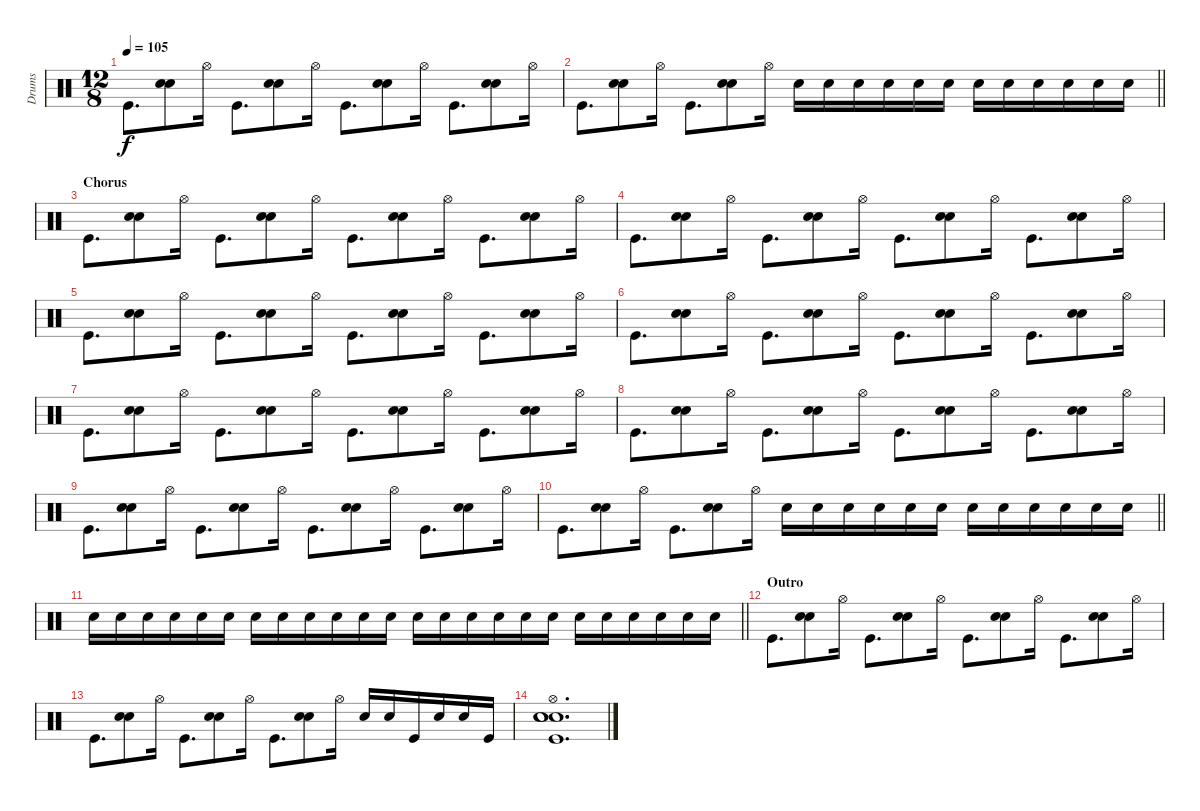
\track ("Drums" "Drums") {instrument percussion}
\staff {score}
\articulation defaults
\ts (12 8)
\tempo 105
\clef neutral
\ks c "Kick (hit)".8{d dy f}
("Hand Clap (hit)" "Electric Snare (hit)").8 "Hi-Hat (open)".16 "Kick (hit)".8{d} ("Hand Clap (hit)" "Electric Snare (hit)").8 "Hi-Hat (open)".16 "Kick (hit)".8{d} ("Hand Clap (hit)" "Electric Snare (hit)").8 "Hi-Hat (open)".16 "Kick (hit)".8{d} ("Hand Clap (hit)" "Electric Snare (hit)").8 "Hi-Hat (open)".16 |
\barLineRight lightlight "Kick (hit)".8{d}
("Hand Clap (hit)" "Electric Snare (hit)").8 "Hi-Hat (open)".16 "Kick (hit)".8{d} ("Hand Clap (hit)" "Electric Snare (hit)").8 "Hi-Hat (open)".16 "Electric Snare (hit)".16 "Electric Snare (hit)".16 "Electric Snare (hit)".16 "Electric Snare (hit)".16 "Electric Snare (hit)".16 "Electric Snare (hit)".16 "Electric Snare (hit)".16 "Electric Snare (hit)".16 "Electric Snare (hit)".16 "Electric Snare (hit)".16 "Electric Snare (hit)".16 "Electric Snare (hit)".16 |
\section ("" "Chorus")
"Kick (hit)".8{d} ("Hand Clap (hit)" "Electric Snare (hit)").8 "Hi-Hat (open)".16 "Kick (hit)".8{d} ("Hand Clap (hit)" "Electric Snare (hit)").8 "Hi-Hat (open)".16 "Kick (hit)".8{d} ("Hand Clap (hit)" "Electric Snare (hit)").8 "Hi-Hat (open)".16 "Kick (hit)".8{d} ("Hand Clap (hit)" "Electric Snare (hit)").8 "Hi-Hat (open)".16 |
"Kick (hit)".8{d} ("Hand Clap (hit)" "Electric Snare (hit)").8 "Hi-Hat (open)".16 "Kick (hit)".8{d} ("Hand Clap (hit)" "Electric Snare (hit)").8 "Hi-Hat (open)".16 "Kick (hit)".8{d} ("Hand Clap (hit)" "Electric Snare (hit)").8 "Hi-Hat (open)".16 "Kick (hit)".8{d} ("Hand Clap (hit)" "Electric Snare (hit)").8 "Hi-Hat (open)".16 |
"Kick (hit)".8{d} ("Hand Clap (hit)" "Electric Snare (hit)").8 "Hi-Hat (open)".16 "Kick (hit)".8{d} ("Hand Clap (hit)" "Electric Snare (hit)").8 "Hi-Hat (open)".16 "Kick (hit)".8{d} ("Hand Clap (hit)" "Electric Snare (hit)").8 "Hi-Hat (open)".16 "Kick (hit)".8{d} ("Hand Clap (hit)" "Electric Snare (hit)").8 "Hi-Hat (open)".16 |
"Kick (hit)".8{d} ("Hand Clap (hit)" "Electric Snare (hit)").8 "Hi-Hat (open)".16 "Kick (hit)".8{d} ("Hand Clap (hit)" "Electric Snare (hit)").8 "Hi-Hat (open)".16 "Kick (hit)".8{d} ("Hand Clap (hit)" "Electric Snare (hit)").8 "Hi-Hat (open)".16 "Kick (hit)".8{d} ("Hand Clap (hit)" "Electric Snare (hit)").8 "Hi-Hat (open)".16 |
"Kick (hit)".8{d} ("Hand Clap (hit)" "Electric Snare (hit)").8 "Hi-Hat (open)".16 "Kick (hit)".8{d} ("Hand Clap (hit)" "Electric Snare (hit)").8 "Hi-Hat (open)".16 "Kick (hit)".8{d} ("Hand Clap (hit)" "Electric Snare (hit)").8 "Hi-Hat (open)".16 "Kick (hit)".8{d} ("Hand Clap (hit)" "Electric Snare (hit)").8 "Hi-Hat (open)".16 |
"Kick (hit)".8{d} ("Hand Clap (hit)" "Electric Snare (hit)").8 "Hi-Hat (open)".16 "Kick (hit)".8{d} ("Hand Clap (hit)" "Electric Snare (hit)").8 "Hi-Hat (open)".16 "Kick (hit)".8{d} ("Hand Clap (hit)" "Electric Snare (hit)").8 "Hi-Hat (open)".16 "Kick (hit)".8{d} ("Hand Clap (hit)" "Electric Snare (hit)").8 "Hi-Hat (open)".16 |
"Kick (hit)".8{d} ("Hand Clap (hit)" "Electric Snare (hit)").8 "Hi-Hat (open)".16 "Kick (hit)".8{d} ("Hand Clap (hit)" "Electric Snare (hit)").8 "Hi-Hat (open)".16 "Kick (hit)".8{d} ("Hand Clap (hit)" "Electric Snare (hit)").8 "Hi-Hat (open)".16 "Kick (hit)".8{d} ("Hand Clap (hit)" "Electric Snare (hit)").8 "Hi-Hat (open)".16 |
\barLineRight lightlight "Kick (hit)".8{d}
("Hand Clap (hit)" "Electric Snare (hit)").8 "Hi-Hat (open)".16 "Kick (hit)".8{d} ("Hand Clap (hit)" "Electric Snare (hit)").8 "Hi-Hat (open)".16 "Electric Snare (hit)".16 "Electric Snare (hit)".16 "Electric Snare (hit)".16 "Electric Snare (hit)".16 "Electric Snare (hit)".16 "Electric Snare (hit)".16 "Electric Snare (hit)".16 "Electric Snare (hit)".16 "Electric Snare (hit)".16 "Electric Snare (hit)".16 "Electric Snare (hit)".16 "Electric Snare (hit)".16 |
\barLineRight lightlight "Electric Snare (hit)".16 "Electric Snare (hit)".16 "Electric Snare (hit)".16 "Electric Snare (hit)".16 "Electric Snare (hit)".16 "Electric Snare (hit)".16 "Electric Snare (hit)".16 "Electric Snare (hit)".16 "Electric Snare (hit)".16 "Electric Snare (hit)".16 "Electric Snare (hit)".16 "Electric Snare (hit)".16 "Electric Snare (hit)".16 "Electric Snare (hit)".16 "Electric Snare (hit)".16 "Electric Snare (hit)".16 "Electric Snare (hit)".16 "Electric Snare (hit)".16 "Electric Snare (hit)".16 "Electric Snare (hit)".16 "Electric Snare (hit)".16 "Electric Snare (hit)".16 "Electric Snare (hit)".16 "Electric Snare (hit)".16
|
\section ("" "Outro")
"Kick (hit)".8{d} ("Hand Clap (hit)" "Electric Snare (hit)").8 "Hi-Hat (open)".16 "Kick (hit)".8{d} ("Hand Clap (hit)" "Electric Snare (hit)").8 "Hi-Hat (open)".16 "Kick (hit)".8{d} ("Hand Clap (hit)" "Electric Snare (hit)").8 "Hi-Hat (open)".16 "Kick (hit)".8{d} ("Hand Clap (hit)" "Electric Snare (hit)").8 "Hi-Hat (open)".16 |
"Kick (hit)".8{d} ("Hand Clap (hit)" "Electric Snare (hit)").8 "Hi-Hat (open)".16 "Kick (hit)".8{d} ("Hand Clap (hit)" "Electric Snare (hit)").8 "Hi-Hat (open)".16 "Kick (hit)".8{d} ("Hand Clap (hit)" "Electric Snare (hit)").8 "Hi-Hat (open)".16 "Electric Snare (hit)".16 "Electric Snare (hit)".16 "Kick (hit)".16 "Electric Snare (hit)".16 "Electric Snare (hit)".16 "Kick (hit)".16 |
("Hi-Hat (open)" "Hand Clap (hit)" "Electric Snare (hit)" "Electric Snare (hit)" "Kick (hit)").1{d}
